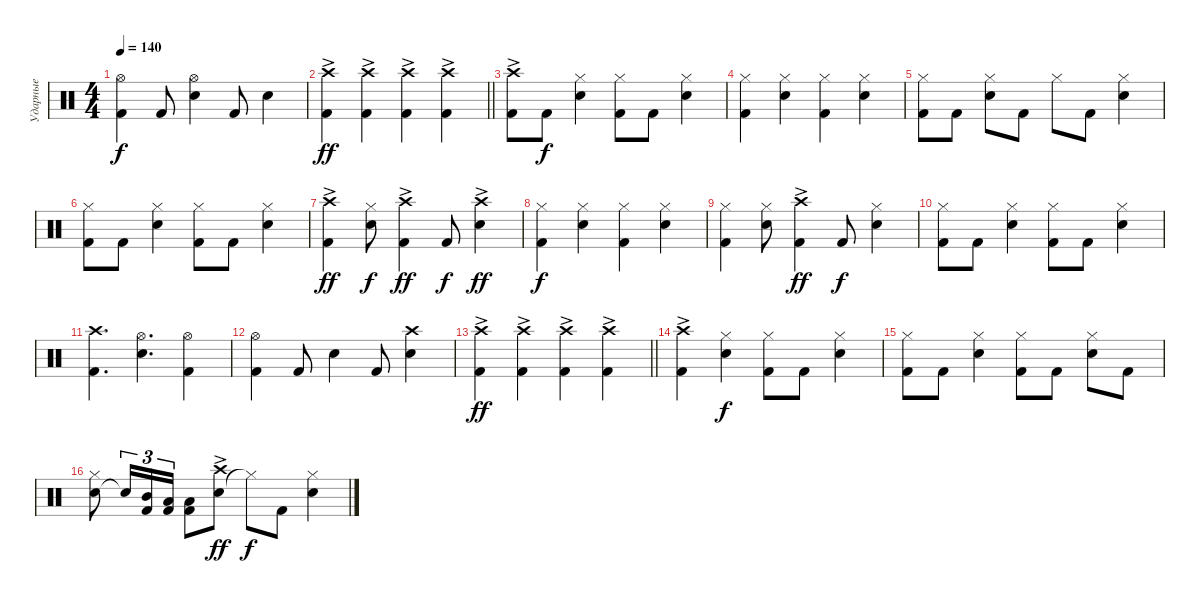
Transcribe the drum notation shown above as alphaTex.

\track ("Ударные" "Ударные") {instrument percussion}
\staff {score}
\articulation defaults
\ts (4 4)
\tempo 140
\clef neutral
\ks c
("Kick (hit) 2" "Hi-Hat (open)").4{dy f} "Kick (hit) 2".8 ("Snare (hit) 2" "Hi-Hat (open)").4 "Kick (hit) 2".8 "Snare (hit) 2".4 |
\barLineRight lightlight
("Kick (hit) 2" "Crash high (hit)"{ac}).4{dy ff} ("Kick (hit) 2" "Crash high (hit)"{ac}).4 ("Kick (hit) 2" "Crash high (hit)"{ac}).4 ("Kick (hit) 2" "Crash high (hit)"{ac}).4 |
("Kick (hit) 2" "Crash high (hit)"{ac}).8 "Kick (hit) 2".8{dy f} ("Snare (hit) 2" "Hi-Hat (closed)").4 ("Kick (hit) 2" "Hi-Hat (closed)").8 "Kick (hit) 2".8 ("Snare (hit) 2" "Hi-Hat (closed)").4 |
("Kick (hit) 2" "Hi-Hat (closed)").4 ("Snare (hit) 2" "Hi-Hat (closed)").4 ("Kick (hit) 2" "Hi-Hat (closed)").4 ("Snare (hit) 2" "Hi-Hat (closed)").4 |
("Kick (hit) 2" "Hi-Hat (closed)").8 "Kick (hit) 2".8 ("Snare (hit) 2" "Hi-Hat (closed)").8 "Kick (hit) 2".8 "Hi-Hat (closed)".8 "Kick (hit) 2".8 ("Snare (hit) 2" "Hi-Hat (closed)").4 |
("Kick (hit) 2" "Hi-Hat (closed)").8 "Kick (hit) 2".8 ("Snare (hit) 2" "Hi-Hat (closed)").4 ("Kick (hit) 2" "Hi-Hat (closed)").8 "Kick (hit) 2".8 ("Snare (hit) 2" "Hi-Hat (closed)").4 |
("Kick (hit) 2" "Crash high (hit)"{ac}).4{dy ff} ("Snare (hit) 2" "Hi-Hat (closed)").8{dy f} ("Kick (hit) 2" "Crash high (hit)"{ac}).4{dy ff} "Kick (hit) 2".8{dy f} ("Snare (hit) 2" "Crash high (hit)"{ac}).4{dy ff} |
("Kick (hit) 2" "Hi-Hat (closed)").4{dy f} ("Snare (hit) 2" "Hi-Hat (closed)").4 ("Kick (hit) 2" "Hi-Hat (closed)").4 ("Snare (hit) 2" "Hi-Hat (closed)").4 |
("Kick (hit) 2" "Hi-Hat (closed)").4 ("Snare (hit) 2" "Hi-Hat (closed)").8 ("Kick (hit) 2" "Crash high (hit)"{ac}).4{dy ff} "Kick (hit) 2".8{dy f} ("Snare (hit) 2" "Hi-Hat (closed)").4 |
("Kick (hit) 2" "Hi-Hat (closed)").8 "Kick (hit) 2".8 ("Snare (hit) 2" "Hi-Hat (closed)").4 ("Kick (hit) 2" "Hi-Hat (closed)").8 "Kick (hit) 2".8 ("Snare (hit) 2" "Hi-Hat (closed)").4 |
("Kick (hit) 2" "Crash high (hit)").4{d} ("Snare (hit) 2" "Hi-Hat (open)").4{d} ("Kick (hit) 2" "Hi-Hat (open)").4 |
("Kick (hit) 2" "Hi-Hat (open)").4 "Kick (hit) 2".8 "Snare (hit) 2".4 "Kick (hit) 2".8 ("Snare (hit) 2" "Crash high (hit)").4 |
\barLineRight lightlight
("Kick (hit) 2" "Crash high (hit)"{ac}).4{dy ff} ("Kick (hit) 2" "Crash high (hit)"{ac}).4 ("Kick (hit) 2" "Crash high (hit)"{ac}).4 ("Kick (hit) 2" "Crash high (hit)"{ac}).4 |
("Kick (hit) 2" "Crash high (hit)"{ac}).4 ("Snare (hit) 2" "Hi-Hat (closed)").4{dy f} ("Kick (hit) 2" "Hi-Hat (closed)").8 "Kick (hit) 2".8 ("Snare (hit) 2" "Hi-Hat (closed)").4 |
("Kick (hit) 2" "Hi-Hat (closed)").8 "Kick (hit) 2".8 ("Snare (hit) 2" "Hi-Hat (closed)").4 ("Kick (hit) 2" "Hi-Hat (closed)").8 "Kick (hit) 2".8 ("Snare (hit) 2" "Hi-Hat (closed)").8 "Kick (hit) 2".8 |
("Snare (hit) 2" "Hi-Hat (closed)").8 "Snare (hit)"{t}.16{tu (3 2)} ("Kick (hit) 2" "Mid Tom (hit)").16{tu (3 2)} ("Kick (hit) 2" "Low Tom (hit)").16{tu (3 2)} ("Kick (hit) 2" "Low Tom (hit)").8 ("Snare (hit) 2" "Crash high (hit)"{ac}).8{dy ff} "Hi-Hat (closed)"{t}.8{dy f} "Kick (hit) 2".8 ("Snare (hit) 2" "Hi-Hat (closed)").4
